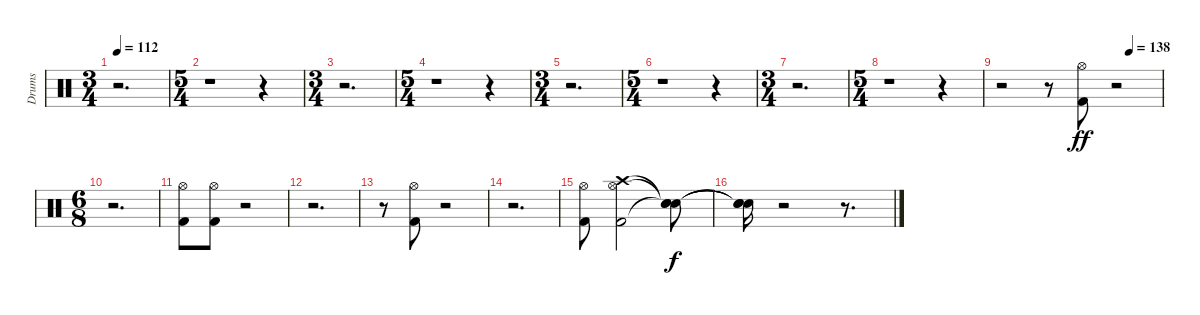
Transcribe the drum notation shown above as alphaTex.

\track ("Drums" "Drums") {instrument percussion}
\staff {score}
\articulation defaults
\ts (3 4)
\tempo 112
\clef neutral
\ks c
r.2{d dy ff} |
\ts (5 4)
r.1 r.4 |
\ts (3 4)
r.2{d} |
\ts (5 4)
r.1 r.4 |
\ts (3 4)
r.2{d} |
\ts (5 4)
r.1 r.4 |
\ts (3 4)
r.2{d} |
\ts (5 4)
r.1 r.4 |
\tempo (138 0.8)
r.2 r.8 ("Kick (hit) 2" "Hi-Hat (open)").8 r.2 |
\ts (6 8)
r.2{d} |
("Kick (hit) 2" "Hi-Hat (open)").8 ("Kick (hit) 2" "Hi-Hat (open)").8 r.2 |
r.2{d} |
r.8 ("Kick (hit) 2" "Hi-Hat (open)").8 r.2 |
r.2{d} |
("Kick (hit) 2" "Hi-Hat (open)").8 ("Kick (hit) 2" "Hi-Hat (open)" "Crash high (hit)").2 ("Snare (hit)"{t} "Snare (hit)"{t} "Snare (hit)"{t}).8{dy f} |
("Snare (hit)"{t} "Snare (hit)"{t} "Snare (hit)"{t}).16 r.2 r.8{d}
